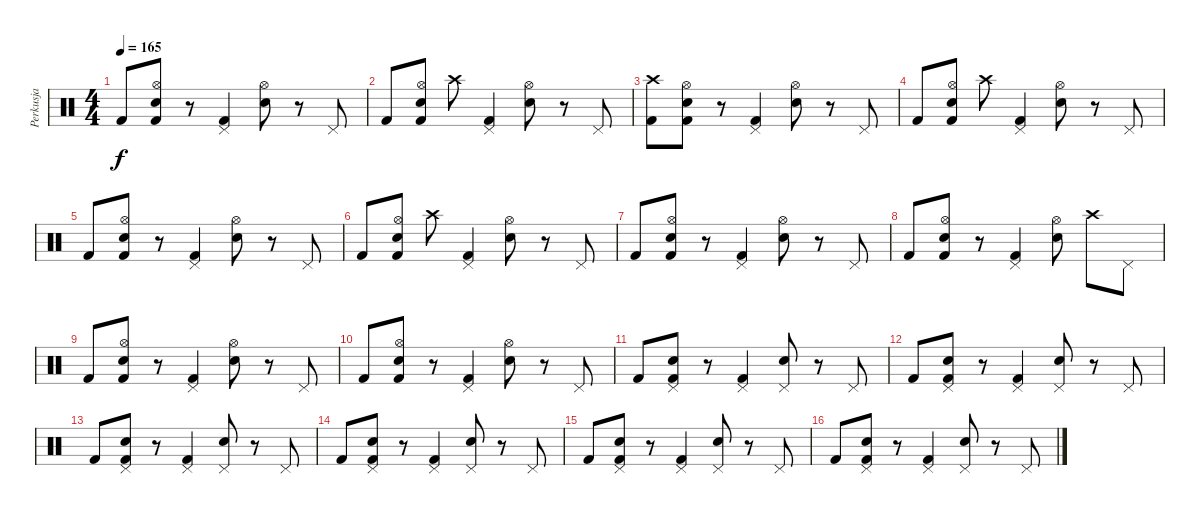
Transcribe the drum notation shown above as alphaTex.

\track ("Perkusja" "Perkusja") {instrument percussion}
\staff {score}
\articulation defaults
\ts (4 4)
\tempo 165
\clef neutral
\ks c "Kick (hit) 2".8{dy f}
("Hi-Hat (open)" "Electric Snare (hit)" "Kick (hit) 2").8 r.8 ("Pedal Hi-Hat (hit)" "Kick (hit) 2").4 ("Hi-Hat (open)" "Electric Snare (hit)").8 r.8 "Pedal Hi-Hat (hit)".8 |
"Kick (hit) 2".8 ("Hi-Hat (open)" "Electric Snare (hit)" "Kick (hit) 2").8 "Crash high (hit)".8 ("Pedal Hi-Hat (hit)" "Kick (hit) 2").4 ("Hi-Hat (open)" "Electric Snare (hit)").8 r.8 "Pedal Hi-Hat (hit)".8 |
("Crash high (hit)" "Kick (hit) 2").8 ("Hi-Hat (open)" "Electric Snare (hit)" "Kick (hit) 2").8 r.8 ("Pedal Hi-Hat (hit)" "Kick (hit) 2").4 ("Hi-Hat (open)" "Electric Snare (hit)").8 r.8 "Pedal Hi-Hat (hit)".8 |
"Kick (hit) 2".8 ("Hi-Hat (open)" "Electric Snare (hit)" "Kick (hit) 2").8 "Crash high (hit)".8 ("Pedal Hi-Hat (hit)" "Kick (hit) 2").4 ("Hi-Hat (open)" "Electric Snare (hit)").8 r.8 "Pedal Hi-Hat (hit)".8 |
"Kick (hit) 2".8 ("Hi-Hat (open)" "Electric Snare (hit)" "Kick (hit) 2").8 r.8 ("Pedal Hi-Hat (hit)" "Kick (hit) 2").4 ("Hi-Hat (open)" "Electric Snare (hit)").8 r.8 "Pedal Hi-Hat (hit)".8 |
"Kick (hit) 2".8 ("Hi-Hat (open)" "Electric Snare (hit)" "Kick (hit) 2").8 "Crash high (hit)".8 ("Pedal Hi-Hat (hit)" "Kick (hit) 2").4 ("Hi-Hat (open)" "Electric Snare (hit)").8 r.8 "Pedal Hi-Hat (hit)".8 |
"Kick (hit) 2".8 ("Hi-Hat (open)" "Electric Snare (hit)" "Kick (hit) 2").8 r.8 ("Pedal Hi-Hat (hit)" "Kick (hit) 2").4 ("Hi-Hat (open)" "Electric Snare (hit)").8 r.8 "Pedal Hi-Hat (hit)".8 |
"Kick (hit) 2".8 ("Hi-Hat (open)" "Electric Snare (hit)" "Kick (hit) 2").8 r.8 ("Pedal Hi-Hat (hit)" "Kick (hit) 2").4 ("Hi-Hat (open)" "Electric Snare (hit)").8 "Crash high (hit)".8 "Pedal Hi-Hat (hit)".8 |
"Kick (hit) 2".8 ("Hi-Hat (open)" "Electric Snare (hit)" "Kick (hit) 2").8 r.8 ("Pedal Hi-Hat (hit)" "Kick (hit) 2").4 ("Hi-Hat (open)" "Electric Snare (hit)").8 r.8 "Pedal Hi-Hat (hit)".8 |
"Kick (hit) 2".8 ("Hi-Hat (open)" "Electric Snare (hit)" "Kick (hit) 2").8 r.8 ("Pedal Hi-Hat (hit)" "Kick (hit) 2").4 ("Hi-Hat (open)" "Electric Snare (hit)").8 r.8 "Pedal Hi-Hat (hit)".8 |
"Kick (hit) 2".8 ("Pedal Hi-Hat (hit)" "Electric Snare (hit)" "Kick (hit) 2").8 r.8 ("Pedal Hi-Hat (hit)" "Kick (hit) 2").4 ("Pedal Hi-Hat (hit)" "Electric Snare (hit)").8 r.8 "Pedal Hi-Hat (hit)".8 |
"Kick (hit) 2".8 ("Pedal Hi-Hat (hit)" "Electric Snare (hit)" "Kick (hit) 2").8 r.8 ("Pedal Hi-Hat (hit)" "Kick (hit) 2").4 ("Pedal Hi-Hat (hit)" "Electric Snare (hit)").8 r.8 "Pedal Hi-Hat (hit)".8 |
"Kick (hit) 2".8 ("Pedal Hi-Hat (hit)" "Electric Snare (hit)" "Kick (hit) 2").8 r.8 ("Pedal Hi-Hat (hit)" "Kick (hit) 2").4 ("Pedal Hi-Hat (hit)" "Electric Snare (hit)").8 r.8 "Pedal Hi-Hat (hit)".8 |
"Kick (hit) 2".8 ("Pedal Hi-Hat (hit)" "Electric Snare (hit)" "Kick (hit) 2").8 r.8 ("Pedal Hi-Hat (hit)" "Kick (hit) 2").4 ("Pedal Hi-Hat (hit)" "Electric Snare (hit)").8 r.8 "Pedal Hi-Hat (hit)".8 |
"Kick (hit) 2".8 ("Pedal Hi-Hat (hit)" "Electric Snare (hit)" "Kick (hit) 2").8 r.8 ("Pedal Hi-Hat (hit)" "Kick (hit) 2").4 ("Pedal Hi-Hat (hit)" "Electric Snare (hit)").8 r.8 "Pedal Hi-Hat (hit)".8 |
"Kick (hit) 2".8 ("Pedal Hi-Hat (hit)" "Electric Snare (hit)" "Kick (hit) 2").8 r.8 ("Pedal Hi-Hat (hit)" "Kick (hit) 2").4 ("Pedal Hi-Hat (hit)" "Electric Snare (hit)").8 r.8 "Pedal Hi-Hat (hit)".8
